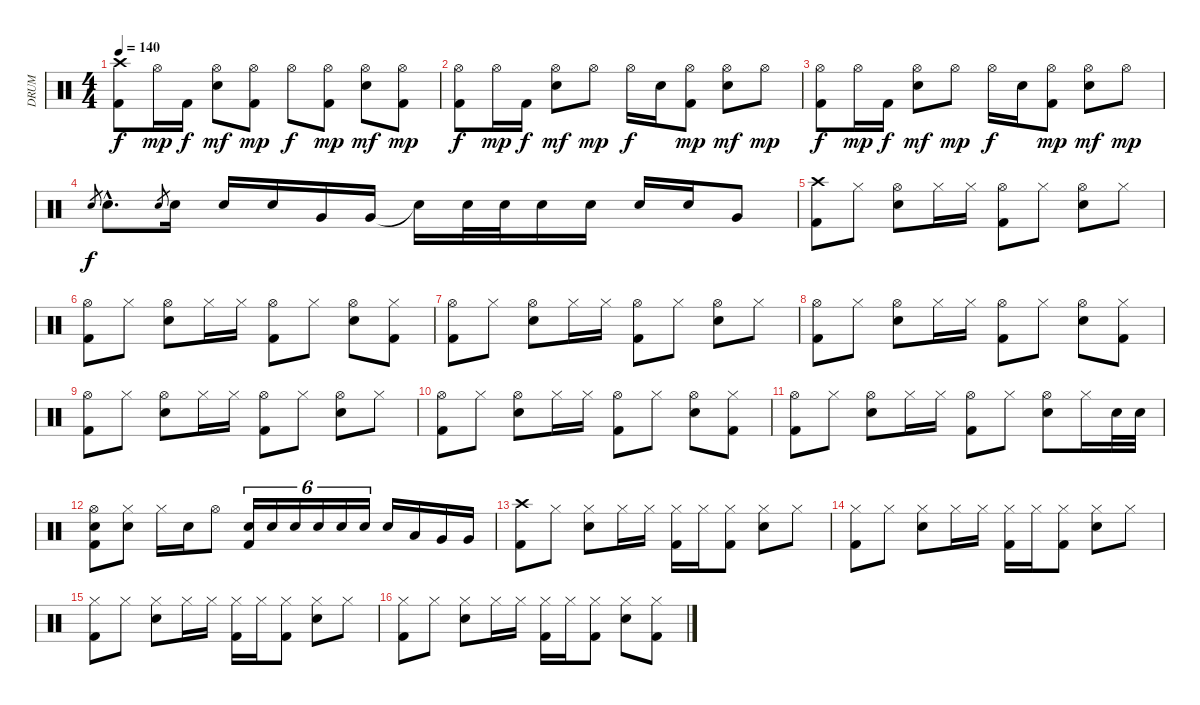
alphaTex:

\track ("DRUM" "DRUM") {instrument percussion}
\staff {score}
\articulation defaults
\ts (4 4)
\tempo 140
\clef neutral
\ks c
("Crash high (hit)" "Kick (hit) 2").8{dy f} "Hi-Hat (open)".16{dy mp} "Kick (hit) 2".16{dy f} ("Hi-Hat (open)" "Electric Snare (hit)").8{dy mf} ("Hi-Hat (open)" "Kick (hit) 2").8{dy mp} "Hi-Hat (open)".8{dy f} ("Hi-Hat (open)" "Kick (hit) 2").8{dy mp} ("Hi-Hat (open)" "Electric Snare (hit)").8{dy mf} ("Hi-Hat (open)" "Kick (hit) 2").8{dy mp} |
("Hi-Hat (open)" "Kick (hit) 2").8{dy f} "Hi-Hat (open)".16{dy mp} "Kick (hit) 2".16{dy f} ("Hi-Hat (open)" "Electric Snare (hit)").8{dy mf} "Hi-Hat (open)".8{dy mp} "Hi-Hat (open)".16{dy f} "Electric Snare (hit)".16 ("Hi-Hat (open)" "Kick (hit) 2").8{dy mp} ("Hi-Hat (open)" "Electric Snare (hit)").8{dy mf} "Hi-Hat (open)".8{dy mp} |
("Hi-Hat (open)" "Kick (hit) 2").8{dy f} "Hi-Hat (open)".16{dy mp} "Kick (hit) 2".16{dy f} ("Hi-Hat (open)" "Electric Snare (hit)").8{dy mf} "Hi-Hat (open)".8{dy mp} "Hi-Hat (open)".16{dy f} "Electric Snare (hit)".16 ("Hi-Hat (open)" "Kick (hit) 2").8{dy mp} ("Hi-Hat (open)" "Electric Snare (hit)").8{dy mf} "Hi-Hat (open)".8{dy mp} |
"Electric Snare (hit)".8{gr dy f} "Electric Snare (hit)"{hac}.8{d} "Electric Snare (hit)".8{gr} "Electric Snare (hit)".16 "Electric Snare (hit)".16 "Electric Snare (hit)".16 "Very Low Tom (hit)".16 "Very Low Tom (hit)".16 "Snare (hit)"{t}.16 "Electric Snare (hit)".32 "Electric Snare (hit)".32 "Electric Snare (hit)".16 "Electric Snare (hit)".16 "Electric Snare (hit)".16 "Electric Snare (hit)".16 "Very Low Tom (hit)".8 |
("Crash high (hit)" "Kick (hit) 2").8 "Hi-Hat (closed)".8 ("Hi-Hat (open)" "Electric Snare (hit)").8 "Hi-Hat (closed)".16 "Hi-Hat (closed)".16 ("Hi-Hat (open)" "Kick (hit) 2").8 "Hi-Hat (closed)".8 ("Hi-Hat (open)" "Electric Snare (hit)").8 "Hi-Hat (closed)".8 |
("Hi-Hat (open)" "Kick (hit) 2").8 "Hi-Hat (closed)".8 ("Hi-Hat (open)" "Electric Snare (hit)").8 "Hi-Hat (closed)".16 "Hi-Hat (closed)".16 ("Hi-Hat (open)" "Kick (hit) 2").8 "Hi-Hat (closed)".8 ("Hi-Hat (open)" "Electric Snare (hit)").8 ("Hi-Hat (closed)" "Kick (hit) 2").8 |
("Hi-Hat (open)" "Kick (hit) 2").8 "Hi-Hat (closed)".8 ("Hi-Hat (open)" "Electric Snare (hit)").8 "Hi-Hat (closed)".16 "Hi-Hat (closed)".16 ("Hi-Hat (open)" "Kick (hit) 2").8 "Hi-Hat (closed)".8 ("Hi-Hat (open)" "Electric Snare (hit)").8 "Hi-Hat (closed)".8 |
("Hi-Hat (open)" "Kick (hit) 2").8 "Hi-Hat (closed)".8 ("Hi-Hat (open)" "Electric Snare (hit)").8 "Hi-Hat (closed)".16 "Hi-Hat (closed)".16 ("Hi-Hat (open)" "Kick (hit) 2").8 "Hi-Hat (closed)".8 ("Hi-Hat (open)" "Electric Snare (hit)").8 ("Hi-Hat (closed)" "Kick (hit) 2").8 |
("Hi-Hat (open)" "Kick (hit) 2").8 "Hi-Hat (closed)".8 ("Hi-Hat (open)" "Electric Snare (hit)").8 "Hi-Hat (closed)".16 "Hi-Hat (closed)".16 ("Hi-Hat (open)" "Kick (hit) 2").8 "Hi-Hat (closed)".8 ("Hi-Hat (open)" "Electric Snare (hit)").8 "Hi-Hat (closed)".8 |
("Hi-Hat (open)" "Kick (hit) 2").8 "Hi-Hat (closed)".8 ("Hi-Hat (open)" "Electric Snare (hit)").8 "Hi-Hat (closed)".16 "Hi-Hat (closed)".16 ("Hi-Hat (open)" "Kick (hit) 2").8 "Hi-Hat (closed)".8 ("Hi-Hat (open)" "Electric Snare (hit)").8 ("Hi-Hat (closed)" "Kick (hit) 2").8 |
("Hi-Hat (open)" "Kick (hit) 2").8 "Hi-Hat (closed)".8 ("Hi-Hat (open)" "Electric Snare (hit)").8 "Hi-Hat (closed)".16 "Hi-Hat (closed)".16 ("Hi-Hat (open)" "Kick (hit) 2").8 "Hi-Hat (closed)".8 ("Hi-Hat (open)" "Electric Snare (hit)").8 "Hi-Hat (closed)".16 "Electric Snare (hit)".32 "Electric Snare (hit)".32 |
("Hi-Hat (open)" "Electric Snare (hit)" "Kick (hit) 2").8 ("Hi-Hat (closed)" "Electric Snare (hit)").8 "Hi-Hat (closed)".16 "Electric Snare (hit)".16 "Hi-Hat (open)".8 ("Electric Snare (hit)" "Kick (hit) 2").16{tu (6 4)} "Electric Snare (hit)".16{tu (6 4)} "Electric Snare (hit)".16{tu (6 4)} "Electric Snare (hit)".16{tu (6 4)} "Electric Snare (hit)".16{tu (6 4)} "Electric Snare (hit)".16{tu (6 4)} "Electric Snare (hit)".16 "Low Tom (hit)".16 "Very Low Tom (hit)".16 "Very Low Tom (hit)".16 |
("Crash high (hit)" "Kick (hit) 2").8 "Hi-Hat (closed)".8 ("Hi-Hat (closed)" "Electric Snare (hit)").8 "Hi-Hat (closed)".16 "Hi-Hat (closed)".16 ("Hi-Hat (closed)" "Kick (hit) 2").16 "Hi-Hat (closed)".16 ("Hi-Hat (closed)" "Kick (hit) 2").8 ("Hi-Hat (closed)" "Electric Snare (hit)").8 "Hi-Hat (closed)".8 |
("Hi-Hat (closed)" "Kick (hit) 2").8 "Hi-Hat (closed)".8 ("Hi-Hat (closed)" "Electric Snare (hit)").8 "Hi-Hat (closed)".16 "Hi-Hat (closed)".16 ("Hi-Hat (closed)" "Kick (hit) 2").16 "Hi-Hat (closed)".16 ("Hi-Hat (closed)" "Kick (hit) 2").8 ("Hi-Hat (closed)" "Electric Snare (hit)").8 "Hi-Hat (closed)".8 |
("Hi-Hat (closed)" "Kick (hit) 2").8 "Hi-Hat (closed)".8 ("Hi-Hat (closed)" "Electric Snare (hit)").8 "Hi-Hat (closed)".16 "Hi-Hat (closed)".16 ("Hi-Hat (closed)" "Kick (hit) 2").16 "Hi-Hat (closed)".16 ("Hi-Hat (closed)" "Kick (hit) 2").8 ("Hi-Hat (closed)" "Electric Snare (hit)").8 "Hi-Hat (closed)".8 |
("Hi-Hat (closed)" "Kick (hit) 2").8 "Hi-Hat (closed)".8 ("Hi-Hat (closed)" "Electric Snare (hit)").8 "Hi-Hat (closed)".16 "Hi-Hat (closed)".16 ("Hi-Hat (closed)" "Kick (hit) 2").16 "Hi-Hat (closed)".16 ("Hi-Hat (closed)" "Kick (hit) 2").8 ("Hi-Hat (closed)" "Electric Snare (hit)").8 ("Hi-Hat (closed)" "Kick (hit) 2").8
